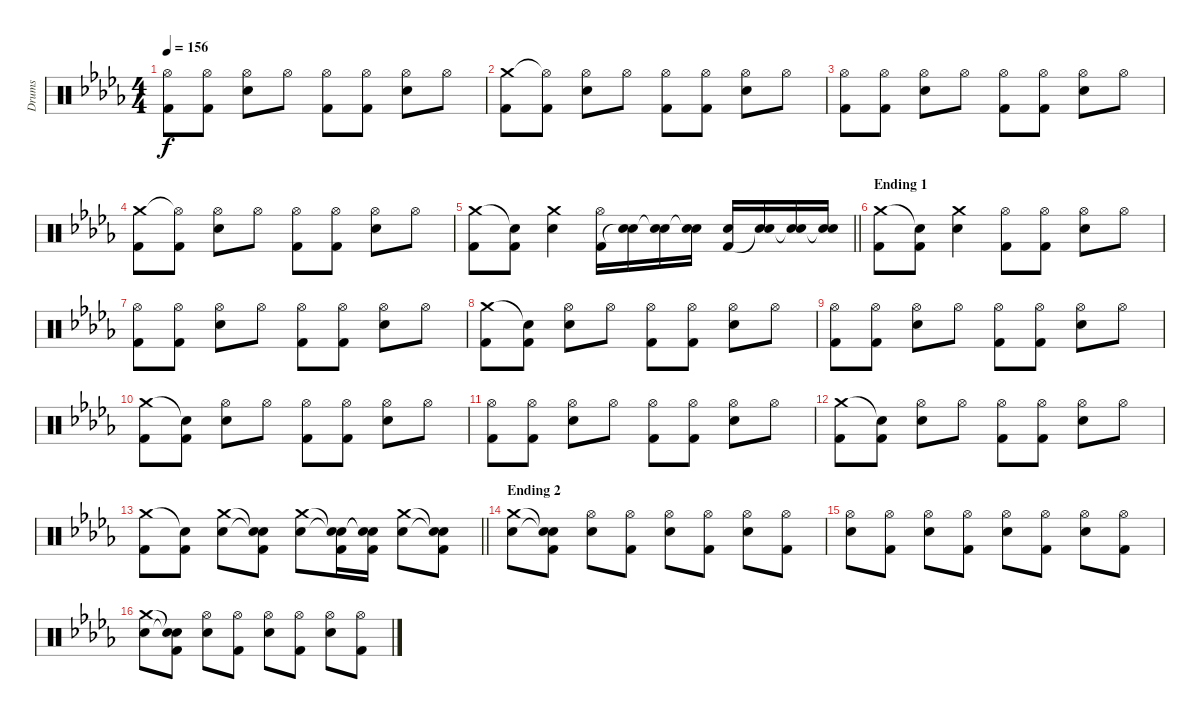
\track ("Drums" "Drums") {instrument percussion}
\staff {score}
\articulation defaults
\ts (4 4)
\tempo 156
\clef neutral
\ks db
("Hi-Hat (open)" "Kick (hit) 2").8{dy f} ("Hi-Hat (open)" "Kick (hit) 2").8 ("Hi-Hat (open)" "Electric Snare (hit)").8 "Hi-Hat (open)".8 ("Hi-Hat (open)" "Kick (hit) 2").8 ("Hi-Hat (open)" "Kick (hit) 2").8 ("Hi-Hat (open)" "Electric Snare (hit)").8 "Hi-Hat (open)".8 |
("Crash medium (hit)" "Kick (hit) 2").8 ("Hi-Hat (open)"{t} "Kick (hit) 2").8 ("Hi-Hat (open)" "Electric Snare (hit)").8 "Hi-Hat (open)".8 ("Hi-Hat (open)" "Kick (hit) 2").8 ("Hi-Hat (open)" "Kick (hit) 2").8 ("Hi-Hat (open)" "Electric Snare (hit)").8 "Hi-Hat (open)".8 |
("Hi-Hat (open)" "Kick (hit) 2").8 ("Hi-Hat (open)" "Kick (hit) 2").8 ("Hi-Hat (open)" "Electric Snare (hit)").8 "Hi-Hat (open)".8 ("Hi-Hat (open)" "Kick (hit) 2").8 ("Hi-Hat (open)" "Kick (hit) 2").8 ("Hi-Hat (open)" "Electric Snare (hit)").8 "Hi-Hat (open)".8 |
("Crash medium (hit)" "Kick (hit) 2").8 ("Hi-Hat (open)"{t} "Kick (hit) 2").8 ("Hi-Hat (open)" "Electric Snare (hit)").8 "Hi-Hat (open)".8 ("Hi-Hat (open)" "Kick (hit) 2").8 ("Hi-Hat (open)" "Kick (hit) 2").8 ("Hi-Hat (open)" "Electric Snare (hit)").8 "Hi-Hat (open)".8 |
\barLineRight lightlight
("Crash medium (hit)" "Kick (hit) 2").8 ("Snare (hit)"{t} "Kick (hit) 2").8 ("Crash medium (hit)" "Electric Snare (hit)").4 ("Hi-Hat (open)" "Kick (hit) 2").16 ("Electric Snare (hit)" "Snare (hit)"{t}).16 ("Electric Snare (hit)" "Snare (hit)"{t}).16 ("Electric Snare (hit)" "Snare (hit)"{t}).16 ("Electric Snare (hit)" "Kick (hit) 2").16 ("Electric Snare (hit)" "Snare (hit)"{t}).16 ("Electric Snare (hit)" "Snare (hit)"{t}).16 ("Electric Snare (hit)" "Snare (hit)"{t}).16 |
\section ("" "Ending 1")
("Crash medium (hit)" "Kick (hit) 2").8 ("Snare (hit)"{t} "Kick (hit) 2").8 ("Crash medium (hit)" "Electric Snare (hit)").4 ("Hi-Hat (open)" "Kick (hit) 2").8 ("Hi-Hat (open)" "Kick (hit) 2").8 ("Hi-Hat (open)" "Electric Snare (hit)").8 "Hi-Hat (open)".8 |
("Hi-Hat (open)" "Kick (hit) 2").8 ("Hi-Hat (open)" "Kick (hit) 2").8 ("Hi-Hat (open)" "Electric Snare (hit)").8 "Hi-Hat (open)".8 ("Hi-Hat (open)" "Kick (hit) 2").8 ("Hi-Hat (open)" "Kick (hit) 2").8 ("Hi-Hat (open)" "Electric Snare (hit)").8 "Hi-Hat (open)".8 |
("Crash medium (hit)" "Kick (hit) 2").8 ("Snare (hit)"{t} "Kick (hit) 2").8 ("Hi-Hat (open)" "Electric Snare (hit)").8 "Hi-Hat (open)".8 ("Hi-Hat (open)" "Kick (hit) 2").8 ("Hi-Hat (open)" "Kick (hit) 2").8 ("Hi-Hat (open)" "Electric Snare (hit)").8 "Hi-Hat (open)".8 |
("Hi-Hat (open)" "Kick (hit) 2").8 ("Hi-Hat (open)" "Kick (hit) 2").8 ("Hi-Hat (open)" "Electric Snare (hit)").8 "Hi-Hat (open)".8 ("Hi-Hat (open)" "Kick (hit) 2").8 ("Hi-Hat (open)" "Kick (hit) 2").8 ("Hi-Hat (open)" "Electric Snare (hit)").8 "Hi-Hat (open)".8 |
("Crash medium (hit)" "Kick (hit) 2").8 ("Snare (hit)"{t} "Kick (hit) 2").8 ("Hi-Hat (open)" "Electric Snare (hit)").8 "Hi-Hat (open)".8 ("Hi-Hat (open)" "Kick (hit) 2").8 ("Hi-Hat (open)" "Kick (hit) 2").8 ("Hi-Hat (open)" "Electric Snare (hit)").8 "Hi-Hat (open)".8 |
("Hi-Hat (open)" "Kick (hit) 2").8 ("Hi-Hat (open)" "Kick (hit) 2").8 ("Hi-Hat (open)" "Electric Snare (hit)").8 "Hi-Hat (open)".8 ("Hi-Hat (open)" "Kick (hit) 2").8 ("Hi-Hat (open)" "Kick (hit) 2").8 ("Hi-Hat (open)" "Electric Snare (hit)").8 "Hi-Hat (open)".8 |
("Crash medium (hit)" "Kick (hit) 2").8 ("Snare (hit)"{t} "Kick (hit) 2").8 ("Hi-Hat (open)" "Electric Snare (hit)").8 "Hi-Hat (open)".8 ("Hi-Hat (open)" "Kick (hit) 2").8 ("Hi-Hat (open)" "Kick (hit) 2").8 ("Hi-Hat (open)" "Electric Snare (hit)").8 "Hi-Hat (open)".8 |
\barLineRight lightlight
("Crash medium (hit)" "Kick (hit) 2").8 ("Snare (hit)"{t} "Kick (hit) 2").8 ("Crash medium (hit)" "Electric Snare (hit)").8 ("Snare (hit)"{t} "Snare (hit)"{t} "Kick (hit) 2").8 ("Crash medium (hit)" "Electric Snare (hit)").8 ("Snare (hit)"{t} "Snare (hit)"{t} "Kick (hit) 2").16 ("Snare (hit)"{t} "Snare (hit)"{t} "Kick (hit) 2").16 ("Crash medium (hit)" "Electric Snare (hit)").8 ("Snare (hit)"{t} "Snare (hit)"{t} "Kick (hit) 2").8 |
\section ("" "Ending 2")
("Crash medium (hit)" "Electric Snare (hit)").8 ("Snare (hit)"{t} "Snare (hit)"{t} "Kick (hit) 2").8 ("Hi-Hat (open)" "Electric Snare (hit)").8 ("Hi-Hat (open)" "Kick (hit) 2").8 ("Hi-Hat (open)" "Electric Snare (hit)").8 ("Hi-Hat (open)" "Kick (hit) 2").8 ("Hi-Hat (open)" "Electric Snare (hit)").8 ("Hi-Hat (open)" "Kick (hit) 2").8 |
("Hi-Hat (open)" "Electric Snare (hit)").8 ("Hi-Hat (open)" "Kick (hit) 2").8 ("Hi-Hat (open)" "Electric Snare (hit)").8 ("Hi-Hat (open)" "Kick (hit) 2").8 ("Hi-Hat (open)" "Electric Snare (hit)").8 ("Hi-Hat (open)" "Kick (hit) 2").8 ("Hi-Hat (open)" "Electric Snare (hit)").8 ("Hi-Hat (open)" "Kick (hit) 2").8 |
("Crash medium (hit)" "Electric Snare (hit)").8 ("Snare (hit)"{t} "Snare (hit)"{t} "Kick (hit) 2").8 ("Hi-Hat (open)" "Electric Snare (hit)").8 ("Hi-Hat (open)" "Kick (hit) 2").8 ("Hi-Hat (open)" "Electric Snare (hit)").8 ("Hi-Hat (open)" "Kick (hit) 2").8 ("Hi-Hat (open)" "Electric Snare (hit)").8 ("Hi-Hat (open)" "Kick (hit) 2").8
